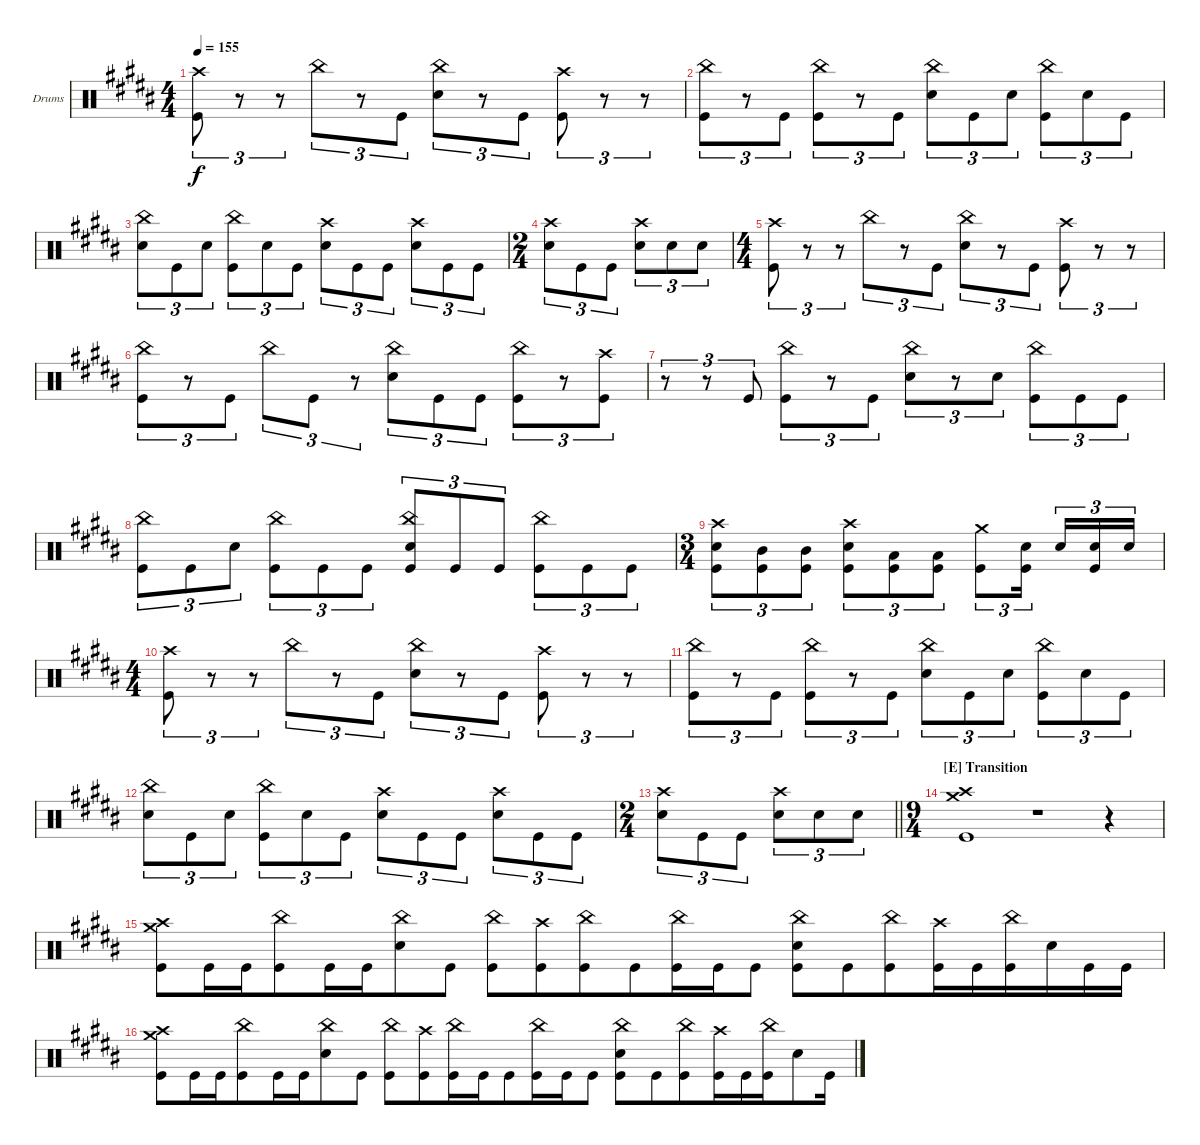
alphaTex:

\bracketExtendMode groupsimilarinstruments
\firstSystemTrackNameOrientation horizontal
\otherSystemsTrackNameOrientation horizontal
\track ("Navene Koperweis" "Drums") {instrument percussion}
\staff {score}
\articulation defaults
\ts (4 4)
\beaming (8 2 2 2 2)
\tempo 155
\clef neutral
\ks b
("Crash high (hit)" "Kick (hit)").8{tu (3 2) dy f} r.8{tu (3 2)} r.8{tu (3 2)} "China (hit)".8{tu (3 2)} r.8{tu (3 2)} "Kick (hit)".8{tu (3 2)} ("China (hit)" "Snare (hit) 2").8{tu (3 2)} r.8{tu (3 2)} "Kick (hit)".8{tu (3 2)} ("Crash high (hit)" "Kick (hit)").8{tu (3 2)} r.8{tu (3 2)} r.8{tu (3 2)} |
("China (hit)" "Kick (hit)").8{tu (3 2)} r.8{tu (3 2)} "Kick (hit)".8{tu (3 2)} ("China (hit)" "Kick (hit)").8{tu (3 2)} r.8{tu (3 2)} "Kick (hit)".8{tu (3 2)} ("China (hit)" "Snare (hit) 2").8{tu (3 2)} "Kick (hit)".8{tu (3 2)} "Snare (hit) 2".8{tu (3 2)} ("China (hit)" "Kick (hit)").8{tu (3 2)} "Snare (hit) 2".8{tu (3 2)} "Kick (hit)".8{tu (3 2)} |
("China (hit)" "Snare (hit) 2").8{tu (3 2)} "Kick (hit)".8{tu (3 2)} "Snare (hit) 2".8{tu (3 2)} ("China (hit)" "Kick (hit)").8{tu (3 2)} "Snare (hit) 2".8{tu (3 2)} "Kick (hit)".8{tu (3 2)} ("Crash high (hit)" "Snare (hit) 2").8{tu (3 2)} "Kick (hit)".8{tu (3 2)} "Kick (hit)".8{tu (3 2)} ("Crash high (hit)" "Snare (hit) 2").8{tu (3 2)} "Kick (hit)".8{tu (3 2)} "Kick (hit)".8{tu (3 2)} |
\ts (2 4)
\beaming (8 2 2)
("Crash high (hit)" "Snare (hit) 2").8{tu (3 2)} "Kick (hit)".8{tu (3 2)} "Kick (hit)".8{tu (3 2)} ("Crash high (hit)" "Snare (hit) 2").8{tu (3 2)} "Snare (hit) 2".8{tu (3 2)} "Snare (hit) 2".8{tu (3 2)} |
\ts (4 4)
\beaming (8 2 2 2 2)
("Crash high (hit)" "Kick (hit)").8{tu (3 2)} r.8{tu (3 2)} r.8{tu (3 2)} "China (hit)".8{tu (3 2)} r.8{tu (3 2)} "Kick (hit)".8{tu (3 2)} ("China (hit)" "Snare (hit) 2").8{tu (3 2)} r.8{tu (3 2)} "Kick (hit)".8{tu (3 2)} ("Crash high (hit)" "Kick (hit)").8{tu (3 2)} r.8{tu (3 2)} r.8{tu (3 2)} |
("China (hit)" "Kick (hit)").8{tu (3 2)} r.8{tu (3 2)} "Kick (hit)".8{tu (3 2)} "China (hit)".8{tu (3 2)} "Kick (hit)".8{tu (3 2)} r.8{tu (3 2)} ("China (hit)" "Snare (hit) 2").8{tu (3 2)} "Kick (hit)".8{tu (3 2)} "Kick (hit)".8{tu (3 2)} ("China (hit)" "Kick (hit)").8{tu (3 2)} r.8{tu (3 2)} ("Crash high (hit)" "Kick (hit)").8{tu (3 2)} |
r.8{tu (3 2)} r.8{tu (3 2)} "Kick (hit)".8{tu (3 2)} ("China (hit)" "Kick (hit)").8{tu (3 2)} r.8{tu (3 2)} "Kick (hit)".8{tu (3 2)} ("China (hit)" "Snare (hit) 2").8{tu (3 2)} r.8{tu (3 2)} "Snare (hit) 2".8{tu (3 2)} ("China (hit)" "Kick (hit)").8{tu (3 2)} "Kick (hit)".8{tu (3 2)} "Kick (hit)".8{tu (3 2)} |
("China (hit)" "Kick (hit)").8{tu (3 2)} "Kick (hit)".8{tu (3 2)} "Snare (hit) 2".8{tu (3 2)} ("China (hit)" "Kick (hit)").8{tu (3 2)} "Kick (hit)".8{tu (3 2)} "Kick (hit)".8{tu (3 2)} ("China (hit)" "Snare (hit) 2" "Kick (hit)").8{tu (3 2)} "Kick (hit)".8{tu (3 2)} "Kick (hit)".8{tu (3 2)} ("China (hit)" "Kick (hit)").8{tu (3 2)} "Kick (hit)".8{tu (3 2)} "Kick (hit)".8{tu (3 2)} |
\ts (3 4)
\beaming (8 2 2 2)
("Crash high (hit)" "Snare (hit) 2" "Kick (hit)").8{tu (3 2)} ("Mid Tom (hit)" "Kick (hit)").8{tu (3 2)} ("Mid Tom (hit)" "Kick (hit)").8{tu (3 2)} ("Crash high (hit)" "Snare (hit) 2" "Kick (hit)").8{tu (3 2)} ("Low Tom (hit)" "Kick (hit)").8{tu (3 2)} ("Low Tom (hit)" "Kick (hit)").8{tu (3 2)} ("Crash medium (hit)" "Kick (hit)").8{tu (3 2)} ("Snare (hit) 2" "Kick (hit)").16{tu (3 2)} "Snare (hit) 2".16{tu (3 2)} ("Snare (hit) 2" "Kick (hit)").16{tu (3 2)} "Snare (hit) 2".16{tu (3 2)} |
\ts (4 4)
\beaming (8 2 2 2 2)
("Crash high (hit)" "Kick (hit)").8{tu (3 2)} r.8{tu (3 2)} r.8{tu (3 2)} "China (hit)".8{tu (3 2)} r.8{tu (3 2)} "Kick (hit)".8{tu (3 2)} ("China (hit)" "Snare (hit) 2").8{tu (3 2)} r.8{tu (3 2)} "Kick (hit)".8{tu (3 2)} ("Crash high (hit)" "Kick (hit)").8{tu (3 2)} r.8{tu (3 2)} r.8{tu (3 2)} |
("China (hit)" "Kick (hit)").8{tu (3 2)} r.8{tu (3 2)} "Kick (hit)".8{tu (3 2)} ("China (hit)" "Kick (hit)").8{tu (3 2)} r.8{tu (3 2)} "Kick (hit)".8{tu (3 2)} ("China (hit)" "Snare (hit) 2").8{tu (3 2)} "Kick (hit)".8{tu (3 2)} "Snare (hit) 2".8{tu (3 2)} ("China (hit)" "Kick (hit)").8{tu (3 2)} "Snare (hit) 2".8{tu (3 2)} "Kick (hit)".8{tu (3 2)} |
("China (hit)" "Snare (hit) 2").8{tu (3 2)} "Kick (hit)".8{tu (3 2)} "Snare (hit) 2".8{tu (3 2)} ("China (hit)" "Kick (hit)").8{tu (3 2)} "Snare (hit) 2".8{tu (3 2)} "Kick (hit)".8{tu (3 2)} ("Crash high (hit)" "Snare (hit) 2").8{tu (3 2)} "Kick (hit)".8{tu (3 2)} "Kick (hit)".8{tu (3 2)} ("Crash high (hit)" "Snare (hit) 2").8{tu (3 2)} "Kick (hit)".8{tu (3 2)} "Kick (hit)".8{tu (3 2)} |
\ts (2 4)
\beaming (8 2 2)
\barLineRight lightlight
("Crash high (hit)" "Snare (hit) 2").8{tu (3 2)} "Kick (hit)".8{tu (3 2)} "Kick (hit)".8{tu (3 2)} ("Crash high (hit)" "Snare (hit) 2").8{tu (3 2)} "Snare (hit) 2".8{tu (3 2)} "Snare (hit) 2".8{tu (3 2)} |
\ts (9 4)
\beaming (8 6 6 6)
\section ("E" "Transition")
("Crash medium (hit)" "Crash high (hit)" "Kick (hit)").1 r.1 r.4 |
("Crash medium (hit)" "Crash high (hit)" "Kick (hit)").8 "Kick (hit)".16 "Kick (hit)".16 ("China (hit)" "Kick (hit)").8 "Kick (hit)".16 "Kick (hit)".16 ("China (hit)" "Snare (hit) 2").8 "Kick (hit)".8 ("China (hit)" "Kick (hit)").8 ("Crash high (hit)" "Kick (hit)").8 ("China (hit)" "Kick (hit)").8 "Kick (hit)".8 ("China (hit)" "Kick (hit)").16 "Kick (hit)".16 "Kick (hit)".8 ("China (hit)" "Snare (hit) 2" "Kick (hit)").8 "Kick (hit)".8 ("China (hit)" "Kick (hit)").8 ("Crash high (hit)" "Kick (hit)").16 "Kick (hit)".16 ("China (hit)" "Kick (hit)").16 "Snare (hit) 2".16 "Kick (hit)".16 "Kick (hit)".16 |
("Crash medium (hit)" "Crash high (hit)" "Kick (hit)").8 "Kick (hit)".16 "Kick (hit)".16 ("China (hit)" "Kick (hit)").8 "Kick (hit)".16 "Kick (hit)".16 ("China (hit)" "Snare (hit) 2").8 "Kick (hit)".8 ("China (hit)" "Kick (hit)").8 ("Crash high (hit)" "Kick (hit)").8 ("China (hit)" "Kick (hit)").16 "Kick (hit)".16 "Kick (hit)".8 ("China (hit)" "Kick (hit)").16 "Kick (hit)".16 "Kick (hit)".8 ("China (hit)" "Snare (hit) 2" "Kick (hit)").8 "Kick (hit)".8 ("China (hit)" "Kick (hit)").8 ("Crash high (hit)" "Kick (hit)").16 "Kick (hit)".16 ("China (hit)" "Kick (hit)").16 "Snare (hit) 2".8 "Kick (hit)".16
